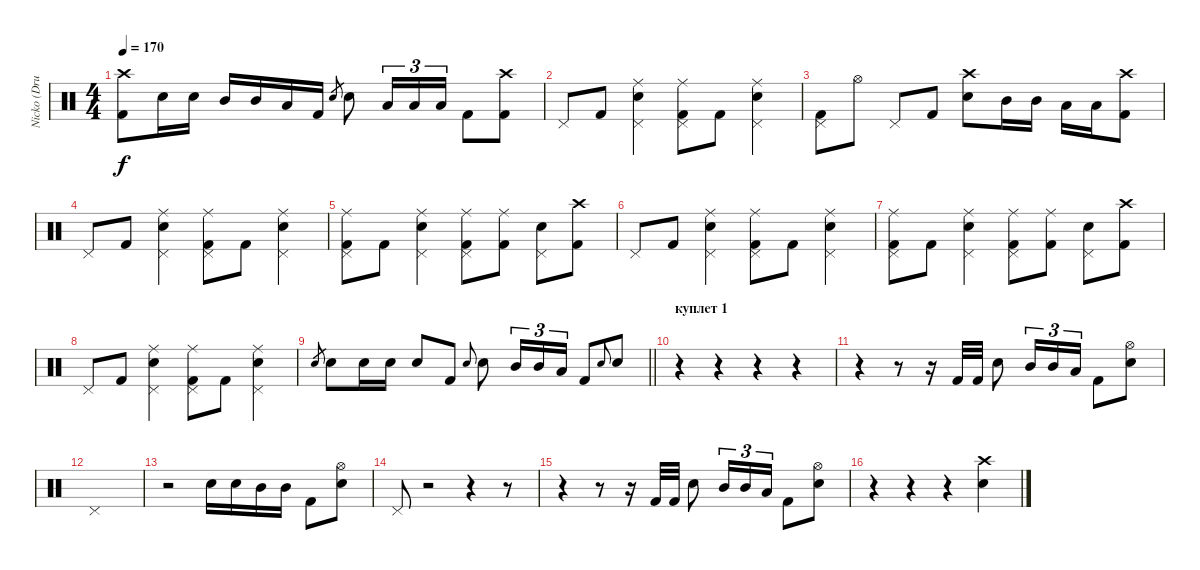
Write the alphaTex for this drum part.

\track ("Nicko (Drums)" "Nicko (Dru") {instrument percussion}
\staff {score}
\articulation defaults
\ts (4 4)
\tempo 170
\clef neutral
\ks c
("Crash high (hit)" "Kick (hit) 2").8{dy f} "Snare (hit) 2".16 "Snare (hit) 2".16 "Mid Tom (hit)".16 "Mid Tom (hit)".16 "Low Tom (hit)".16 "Kick (hit) 2".16 "Snare (hit) 2".8{gr} "Snare (hit) 2".8 "Low Floor Tom (hit)".16{tu (3 2)} "Low Tom (hit)".16{tu (3 2)} "Low Floor Tom (hit)".16{tu (3 2)} "Kick (hit) 2".8 ("Crash high (hit)" "Kick (hit) 2").8 |
"Pedal Hi-Hat (hit)".8 "Kick (hit) 2".8 ("Ride (middle)" "Snare (hit) 2" "Pedal Hi-Hat (hit)").4 ("Ride (middle)" "Pedal Hi-Hat (hit)" "Kick (hit) 2").8 "Kick (hit) 2".8 ("Ride (middle)" "Snare (hit) 2" "Pedal Hi-Hat (hit)").4 |
("Pedal Hi-Hat (hit)" "Kick (hit) 2").8 "Hi-Hat (open)".8 "Pedal Hi-Hat (hit)".8 "Kick (hit) 2".8 ("Crash high (hit)" "Snare (hit) 2").8 "Mid Tom (hit)".16 "Mid Tom (hit)".16 "Low Tom (hit)".16 "Low Tom (hit)".16 ("Crash high (hit)" "Kick (hit) 2").8 |
"Pedal Hi-Hat (hit)".8 "Kick (hit) 2".8 ("Ride (middle)" "Snare (hit) 2" "Pedal Hi-Hat (hit)").4 ("Ride (middle)" "Pedal Hi-Hat (hit)" "Kick (hit) 2").8 "Kick (hit) 2".8 ("Ride (middle)" "Snare (hit) 2" "Pedal Hi-Hat (hit)").4 |
("Ride (middle)" "Pedal Hi-Hat (hit)" "Kick (hit) 2").8 "Kick (hit) 2".8 ("Ride (middle)" "Snare (hit) 2" "Pedal Hi-Hat (hit)").4 ("Ride (middle)" "Pedal Hi-Hat (hit)" "Kick (hit) 2").8 ("Ride (middle)" "Kick (hit) 2").8 ("Snare (hit) 2" "Pedal Hi-Hat (hit)").8 ("Crash high (hit)" "Kick (hit) 2").8 |
"Pedal Hi-Hat (hit)".8 "Kick (hit) 2".8 ("Ride (middle)" "Snare (hit) 2" "Pedal Hi-Hat (hit)").4 ("Ride (middle)" "Pedal Hi-Hat (hit)" "Kick (hit) 2").8 "Kick (hit) 2".8 ("Ride (middle)" "Snare (hit) 2" "Pedal Hi-Hat (hit)").4 |
("Ride (middle)" "Pedal Hi-Hat (hit)" "Kick (hit) 2").8 "Kick (hit) 2".8 ("Ride (middle)" "Snare (hit) 2" "Pedal Hi-Hat (hit)").4 ("Ride (middle)" "Pedal Hi-Hat (hit)" "Kick (hit) 2").8 ("Ride (middle)" "Kick (hit) 2").8 ("Snare (hit) 2" "Pedal Hi-Hat (hit)").8 ("Crash high (hit)" "Kick (hit) 2").8 |
"Pedal Hi-Hat (hit)".8 "Kick (hit) 2".8 ("Ride (middle)" "Snare (hit) 2" "Pedal Hi-Hat (hit)").4 ("Ride (middle)" "Pedal Hi-Hat (hit)" "Kick (hit) 2").8 "Kick (hit) 2".8 ("Ride (middle)" "Snare (hit) 2" "Pedal Hi-Hat (hit)").4 |
\barLineRight lightlight "Snare (hit) 2".8{gr} "Snare (hit) 2".8 "Snare (hit) 2".16 "Snare (hit) 2".16 "Snare (hit) 2".8 "Kick (hit) 2".8 "Snare (hit) 2".8{gr onbeat} "Snare (hit) 2".8 "Mid Tom (hit)".16{tu (3 2)} "Mid Tom (hit)".16{tu (3 2)} "Low Tom (hit)".16{tu (3 2)} "Kick (hit) 2".8 "Snare (hit) 2".8{gr onbeat} "Snare (hit) 2".8
|
\section ("" "куплет 1")
r.4 r.4 r.4 r.4 |
r.4 r.8 r.16 "Kick (hit) 2".32 "Kick (hit) 2".32 "Snare (hit) 2".8 "Mid Tom (hit)".16{tu (3 2)} "Mid Tom (hit)".16{tu (3 2)} "Low Tom (hit)".16{tu (3 2)} "Kick (hit) 2".8 ("Hi-Hat (open)" "Snare (hit) 2").8 |
"Pedal Hi-Hat (hit)".1 |
r.2 "Snare (hit) 2".16 "Snare (hit) 2".16 "Mid Tom (hit)".16 "Mid Tom (hit)".16 "Kick (hit) 2".8 ("Hi-Hat (open)" "Snare (hit) 2").8 |
"Pedal Hi-Hat (hit)".8 r.2 r.4 r.8 |
r.4 r.8 r.16 "Kick (hit) 2".32 "Kick (hit) 2".32 "Snare (hit) 2".8 "Mid Tom (hit)".16{tu (3 2)} "Mid Tom (hit)".16{tu (3 2)} "Low Tom (hit)".16{tu (3 2)} "Kick (hit) 2".8 ("Hi-Hat (open)" "Snare (hit) 2").8 |
r.4 r.4 r.4 ("Crash high (hit)" "Snare (hit) 2").4
